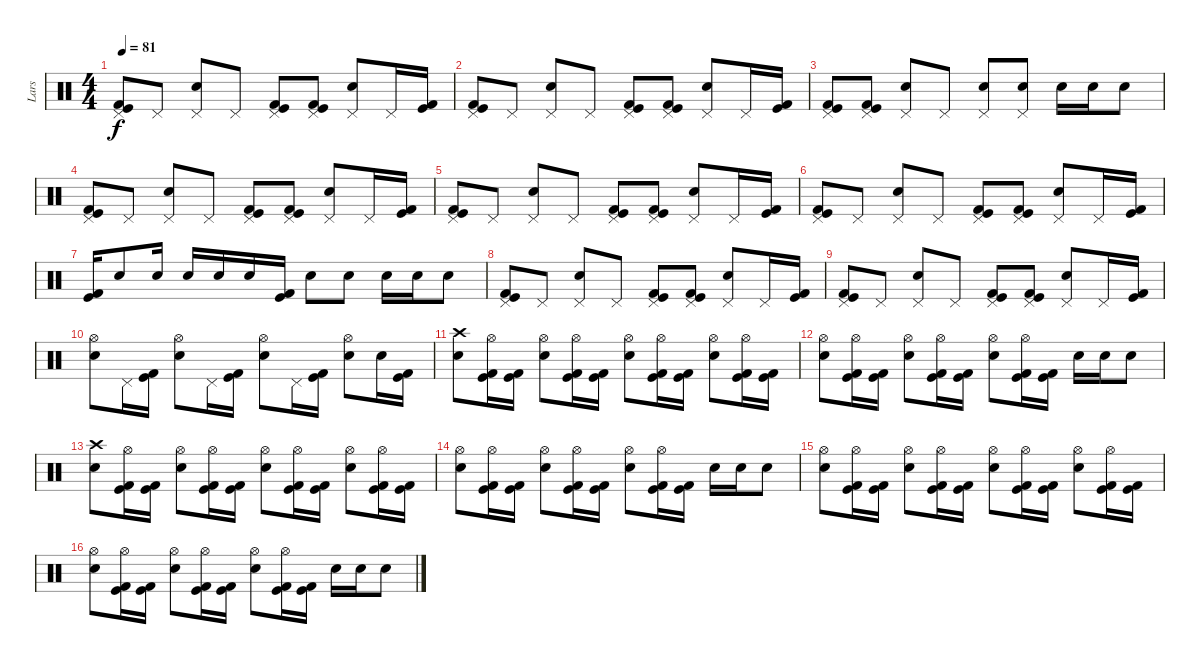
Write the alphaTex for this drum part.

\track ("Lars" "Lars") {instrument percussion}
\staff {score}
\articulation defaults
\ts (4 4)
\tempo 81
\clef neutral
\ks c
("Pedal Hi-Hat (hit)" "Kick (hit)" "Kick (hit) 2").8{dy f} "Pedal Hi-Hat (hit)".8 ("Pedal Hi-Hat (hit)" "Electric Snare (hit)").8 "Pedal Hi-Hat (hit)".8 ("Pedal Hi-Hat (hit)" "Kick (hit)" "Kick (hit) 2").8 ("Pedal Hi-Hat (hit)" "Kick (hit)" "Kick (hit) 2").8 ("Pedal Hi-Hat (hit)" "Electric Snare (hit)").8 "Pedal Hi-Hat (hit)".16 ("Kick (hit)" "Kick (hit) 2").16 |
("Pedal Hi-Hat (hit)" "Kick (hit)" "Kick (hit) 2").8 "Pedal Hi-Hat (hit)".8 ("Pedal Hi-Hat (hit)" "Electric Snare (hit)").8 "Pedal Hi-Hat (hit)".8 ("Pedal Hi-Hat (hit)" "Kick (hit)" "Kick (hit) 2").8 ("Pedal Hi-Hat (hit)" "Kick (hit)" "Kick (hit) 2").8 ("Pedal Hi-Hat (hit)" "Electric Snare (hit)").8 "Pedal Hi-Hat (hit)".16 ("Kick (hit)" "Kick (hit) 2").16 |
("Pedal Hi-Hat (hit)" "Kick (hit)" "Kick (hit) 2").8 ("Pedal Hi-Hat (hit)" "Kick (hit)" "Kick (hit) 2").8 ("Pedal Hi-Hat (hit)" "Electric Snare (hit)").8 "Pedal Hi-Hat (hit)".8 ("Pedal Hi-Hat (hit)" "Electric Snare (hit)").8 ("Pedal Hi-Hat (hit)" "Electric Snare (hit)").8 "Electric Snare (hit)".16 "Electric Snare (hit)".16 "Electric Snare (hit)".8 |
("Pedal Hi-Hat (hit)" "Kick (hit)" "Kick (hit) 2").8 "Pedal Hi-Hat (hit)".8 ("Pedal Hi-Hat (hit)" "Electric Snare (hit)").8 "Pedal Hi-Hat (hit)".8 ("Pedal Hi-Hat (hit)" "Kick (hit)" "Kick (hit) 2").8 ("Pedal Hi-Hat (hit)" "Kick (hit)" "Kick (hit) 2").8 ("Pedal Hi-Hat (hit)" "Electric Snare (hit)").8 "Pedal Hi-Hat (hit)".16 ("Kick (hit)" "Kick (hit) 2").16 |
("Pedal Hi-Hat (hit)" "Kick (hit)" "Kick (hit) 2").8 "Pedal Hi-Hat (hit)".8 ("Pedal Hi-Hat (hit)" "Electric Snare (hit)").8 "Pedal Hi-Hat (hit)".8 ("Pedal Hi-Hat (hit)" "Kick (hit)" "Kick (hit) 2").8 ("Pedal Hi-Hat (hit)" "Kick (hit)" "Kick (hit) 2").8 ("Pedal Hi-Hat (hit)" "Electric Snare (hit)").8 "Pedal Hi-Hat (hit)".16 ("Kick (hit)" "Kick (hit) 2").16 |
("Pedal Hi-Hat (hit)" "Kick (hit)" "Kick (hit) 2").8 "Pedal Hi-Hat (hit)".8 ("Pedal Hi-Hat (hit)" "Electric Snare (hit)").8 "Pedal Hi-Hat (hit)".8 ("Pedal Hi-Hat (hit)" "Kick (hit)" "Kick (hit) 2").8 ("Pedal Hi-Hat (hit)" "Kick (hit)" "Kick (hit) 2").8 ("Pedal Hi-Hat (hit)" "Electric Snare (hit)").8 "Pedal Hi-Hat (hit)".16 ("Kick (hit)" "Kick (hit) 2").16 |
("Kick (hit)" "Kick (hit) 2").16 "Electric Snare (hit)".8 "Electric Snare (hit)".16 "Electric Snare (hit)".16 "Electric Snare (hit)".16 "Electric Snare (hit)".16 ("Kick (hit)" "Kick (hit) 2").16 "Electric Snare (hit)".8 "Electric Snare (hit)".8 "Electric Snare (hit)".16 "Electric Snare (hit)".16 "Electric Snare (hit)".8 |
("Pedal Hi-Hat (hit)" "Kick (hit)" "Kick (hit) 2").8 "Pedal Hi-Hat (hit)".8 ("Pedal Hi-Hat (hit)" "Electric Snare (hit)").8 "Pedal Hi-Hat (hit)".8 ("Pedal Hi-Hat (hit)" "Kick (hit)" "Kick (hit) 2").8 ("Pedal Hi-Hat (hit)" "Kick (hit)" "Kick (hit) 2").8 ("Pedal Hi-Hat (hit)" "Electric Snare (hit)").8 "Pedal Hi-Hat (hit)".16 ("Kick (hit)" "Kick (hit) 2").16 |
("Pedal Hi-Hat (hit)" "Kick (hit)" "Kick (hit) 2").8 "Pedal Hi-Hat (hit)".8 ("Pedal Hi-Hat (hit)" "Electric Snare (hit)").8 "Pedal Hi-Hat (hit)".8 ("Pedal Hi-Hat (hit)" "Kick (hit)" "Kick (hit) 2").8 ("Pedal Hi-Hat (hit)" "Kick (hit)" "Kick (hit) 2").8 ("Pedal Hi-Hat (hit)" "Electric Snare (hit)").8 "Pedal Hi-Hat (hit)".16 ("Kick (hit)" "Kick (hit) 2").16 |
("Hi-Hat (open)" "Electric Snare (hit)").8 "Pedal Hi-Hat (hit)".16 ("Kick (hit)" "Kick (hit) 2").16 ("Hi-Hat (open)" "Electric Snare (hit)").8 "Pedal Hi-Hat (hit)".16 ("Kick (hit)" "Kick (hit) 2").16 ("Hi-Hat (open)" "Electric Snare (hit)").8 "Pedal Hi-Hat (hit)".16 ("Kick (hit)" "Kick (hit) 2").16 ("Hi-Hat (open)" "Electric Snare (hit)").8 "Electric Snare (hit)".16 ("Kick (hit)" "Kick (hit) 2").16 |
("Crash high (hit)" "Electric Snare (hit)").8 ("Hi-Hat (open)" "Kick (hit)" "Kick (hit) 2").16 ("Kick (hit)" "Kick (hit) 2").16 ("Hi-Hat (open)" "Electric Snare (hit)").8 ("Hi-Hat (open)" "Kick (hit)" "Kick (hit) 2").16 ("Kick (hit)" "Kick (hit) 2").16 ("Hi-Hat (open)" "Electric Snare (hit)").8 ("Hi-Hat (open)" "Kick (hit)" "Kick (hit) 2").16 ("Kick (hit)" "Kick (hit) 2").16 ("Hi-Hat (open)" "Electric Snare (hit)").8 ("Hi-Hat (open)" "Kick (hit)" "Kick (hit) 2").16 ("Kick (hit)" "Kick (hit) 2").16 |
("Hi-Hat (open)" "Electric Snare (hit)").8 ("Hi-Hat (open)" "Kick (hit)" "Kick (hit) 2").16 ("Kick (hit)" "Kick (hit) 2").16 ("Hi-Hat (open)" "Electric Snare (hit)").8 ("Hi-Hat (open)" "Kick (hit)" "Kick (hit) 2").16 ("Kick (hit)" "Kick (hit) 2").16 ("Hi-Hat (open)" "Electric Snare (hit)").8 ("Hi-Hat (open)" "Kick (hit)" "Kick (hit) 2").16 ("Kick (hit)" "Kick (hit) 2").16 "Electric Snare (hit)".16 "Electric Snare (hit)".16 "Electric Snare (hit)".8 |
("Crash high (hit)" "Electric Snare (hit)").8 ("Hi-Hat (open)" "Kick (hit)" "Kick (hit) 2").16 ("Kick (hit)" "Kick (hit) 2").16 ("Hi-Hat (open)" "Electric Snare (hit)").8 ("Hi-Hat (open)" "Kick (hit)" "Kick (hit) 2").16 ("Kick (hit)" "Kick (hit) 2").16 ("Hi-Hat (open)" "Electric Snare (hit)").8 ("Hi-Hat (open)" "Kick (hit)" "Kick (hit) 2").16 ("Kick (hit)" "Kick (hit) 2").16 ("Hi-Hat (open)" "Electric Snare (hit)").8 ("Hi-Hat (open)" "Kick (hit)" "Kick (hit) 2").16 ("Kick (hit)" "Kick (hit) 2").16 |
("Hi-Hat (open)" "Electric Snare (hit)").8 ("Hi-Hat (open)" "Kick (hit)" "Kick (hit) 2").16 ("Kick (hit)" "Kick (hit) 2").16 ("Hi-Hat (open)" "Electric Snare (hit)").8 ("Hi-Hat (open)" "Kick (hit)" "Kick (hit) 2").16 ("Kick (hit)" "Kick (hit) 2").16 ("Hi-Hat (open)" "Electric Snare (hit)").8 ("Hi-Hat (open)" "Kick (hit)" "Kick (hit) 2").16 ("Kick (hit)" "Kick (hit) 2").16 "Electric Snare (hit)".16 "Electric Snare (hit)".16 "Electric Snare (hit)".8 |
("Hi-Hat (open)" "Electric Snare (hit)").8 ("Hi-Hat (open)" "Kick (hit)" "Kick (hit) 2").16 ("Kick (hit)" "Kick (hit) 2").16 ("Hi-Hat (open)" "Electric Snare (hit)").8 ("Hi-Hat (open)" "Kick (hit)" "Kick (hit) 2").16 ("Kick (hit)" "Kick (hit) 2").16 ("Hi-Hat (open)" "Electric Snare (hit)").8 ("Hi-Hat (open)" "Kick (hit)" "Kick (hit) 2").16 ("Kick (hit)" "Kick (hit) 2").16 ("Hi-Hat (open)" "Electric Snare (hit)").8 ("Hi-Hat (open)" "Kick (hit)" "Kick (hit) 2").16 ("Kick (hit)" "Kick (hit) 2").16 |
("Hi-Hat (open)" "Electric Snare (hit)").8 ("Hi-Hat (open)" "Kick (hit)" "Kick (hit) 2").16 ("Kick (hit)" "Kick (hit) 2").16 ("Hi-Hat (open)" "Electric Snare (hit)").8 ("Hi-Hat (open)" "Kick (hit)" "Kick (hit) 2").16 ("Kick (hit)" "Kick (hit) 2").16 ("Hi-Hat (open)" "Electric Snare (hit)").8 ("Hi-Hat (open)" "Kick (hit)" "Kick (hit) 2").16 ("Kick (hit)" "Kick (hit) 2").16 "Electric Snare (hit)".16 "Electric Snare (hit)".16 "Electric Snare (hit)".8
